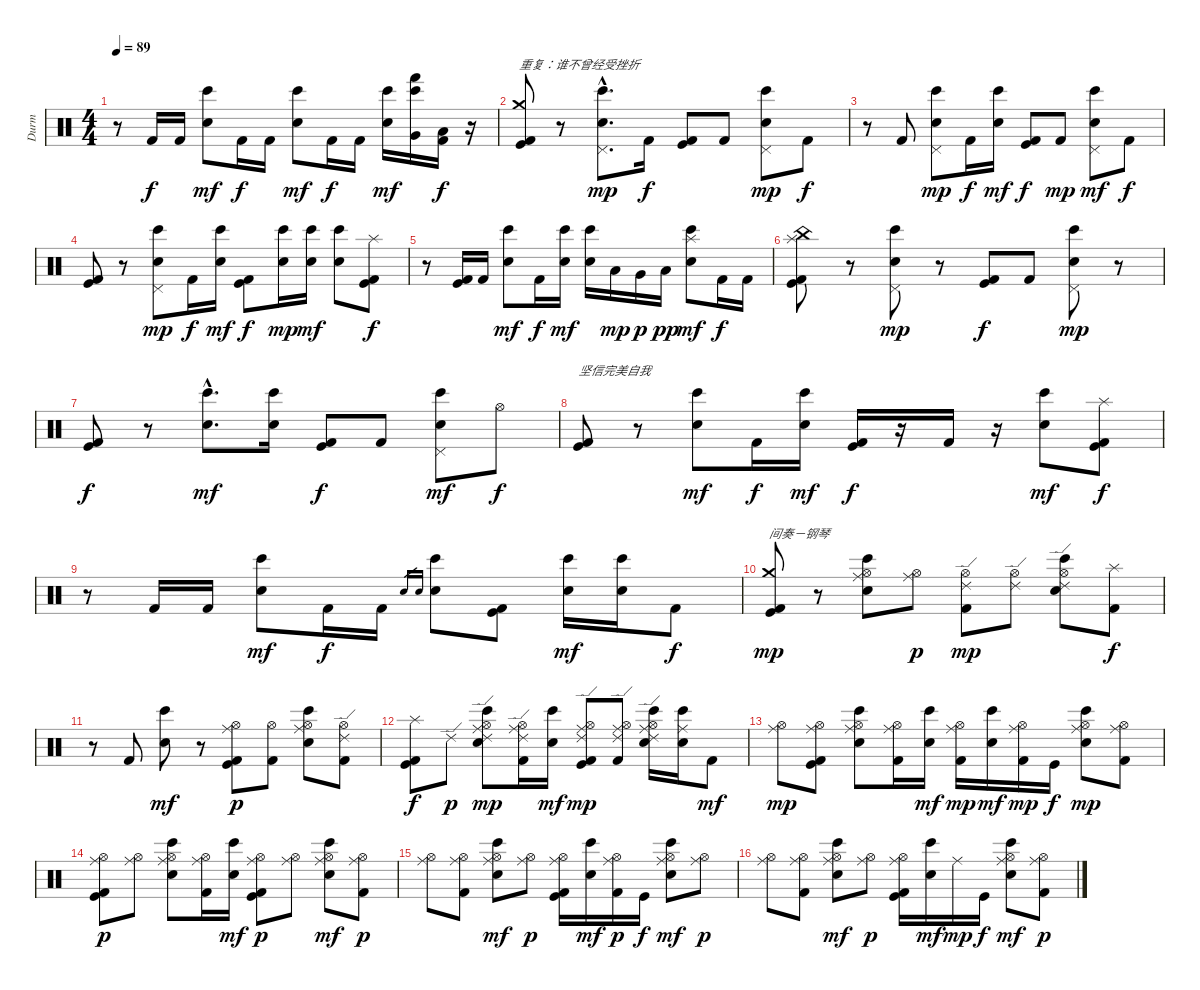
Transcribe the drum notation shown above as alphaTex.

\track ("Durm" "Durm") {instrument percussion}
\staff {score}
\articulation defaults
\ts (4 4)
\tempo 89
\clef neutral
\ks c
r.8{dy f} "Kick (hit) 2".16 "Kick (hit) 2".16 ("Bongo High (hit)" "Electric Snare (hit)").8{dy mf} "Kick (hit) 2".16{dy f} "Kick (hit) 2".16 ("Bongo High (hit)" "Electric Snare (hit)").8{dy mf} "Kick (hit) 2".16{dy f} "Kick (hit) 2".16 ("Bongo High (hit)" "Electric Snare (hit)").16{dy mf} ("Very Low Tom (hit)" "Bongo High (hit)" "Hand (hit)").16 ("Kick (hit) 2" "Low Floor Tom (hit)").16{dy f} r.16 |
("Crash medium (hit)" "Kick (hit)" "Kick (hit) 2").8{txt "重复：谁不曾经受挫折"} r.8 ("Pedal Hi-Hat (hit)"{hac} "Electric Snare (hit)"{hac} "Bongo High (hit)"{hac}).8{d dy mp} "Kick (hit) 2".16{dy f} ("Kick (hit) 2" "Kick (hit)").8 "Kick (hit) 2".8 ("Pedal Hi-Hat (hit)" "Electric Snare (hit)" "Bongo High (hit)").8{dy mp} "Kick (hit) 2".8{dy f} |
r.8 "Kick (hit) 2".8 ("Pedal Hi-Hat (hit)" "Electric Snare (hit)" "Bongo High (hit)").8{dy mp} "Kick (hit) 2".16{dy f} ("Bongo High (hit)" "Electric Snare (hit)").16{dy mf} ("Kick (hit) 2" "Kick (hit)").8{dy f} "Kick (hit) 2".8{dy mp} ("Pedal Hi-Hat (hit)" "Bongo High (hit)" "Electric Snare (hit)").8{dy mf} "Kick (hit) 2".8{dy f} |
("Kick (hit) 2" "Kick (hit)").8 r.8 ("Pedal Hi-Hat (hit)" "Electric Snare (hit)" "Bongo High (hit)").8{dy mp} "Kick (hit) 2".16{dy f} ("Bongo High (hit)" "Electric Snare (hit)").16{dy mf} ("Kick (hit) 2" "Kick (hit)").8{dy f} ("Bongo High (hit)" "Electric Snare (hit)").16{dy mp} ("Bongo High (hit)" "Electric Snare (hit)").16{dy mf} ("Bongo High (hit)" "Electric Snare (hit)").8 ("Splash (hit)" "Kick (hit) 2" "Kick (hit)").8{dy f} |
r.8 ("Kick (hit) 2" "Kick (hit)").16 "Kick (hit) 2".16 ("Bongo High (hit)" "Electric Snare (hit)").8{dy mf} "Kick (hit) 2".16{dy f} ("Electric Snare (hit)" "Bongo High (hit)").16{dy mf} ("Electric Snare (hit)" "Bongo High (hit)").16 "Low Tom (hit)".16{dy mp} "Very Low Tom (hit)".16{dy p} "Low Floor Tom (hit)".16{dy pp} ("Splash (hit)" "Bongo High (hit)" "Electric Snare (hit)").8{dy mf} "Kick (hit) 2".16{dy f} "Kick (hit) 2".16 |
("China (hit)" "Splash (hit)" "Kick (hit)" "Kick (hit) 2").8 r.8 ("Pedal Hi-Hat (hit)" "Electric Snare (hit)" "Bongo High (hit)").8{dy mp} r.8 ("Kick (hit) 2" "Kick (hit)").8{dy f} "Kick (hit) 2".8 ("Pedal Hi-Hat (hit)" "Electric Snare (hit)" "Bongo High (hit)").8{dy mp} r.8 |
("Kick (hit)" "Kick (hit) 2").8{dy f} r.8 ("Electric Snare (hit)"{hac} "Bongo High (hit)"{hac}).8{d dy mf} ("Electric Snare (hit)" "Bongo High (hit)").16 ("Kick (hit)" "Kick (hit) 2").8{dy f} "Kick (hit) 2".8 ("Pedal Hi-Hat (hit)" "Bongo High (hit)" "Electric Snare (hit)").8{dy mf} "Hi-Hat (open)".8{dy f} |
("Kick (hit) 2" "Kick (hit)").8{txt "坚信完美自我"} r.8 ("Bongo High (hit)" "Electric Snare (hit)").8{dy mf} "Kick (hit) 2".16{dy f} ("Electric Snare (hit)" "Bongo High (hit)").16{dy mf} ("Kick (hit) 2" "Kick (hit)").16{dy f} r.16 "Kick (hit) 2".16 r.16 ("Bongo High (hit)" "Electric Snare (hit)").8{dy mf} ("Splash (hit)" "Kick (hit) 2" "Kick (hit)").8{dy f} |
r.8 "Kick (hit) 2".16 "Kick (hit) 2".16 ("Bongo High (hit)" "Electric Snare (hit)").8{dy mf} "Kick (hit) 2".16{dy f} "Kick (hit) 2".16 "Snare (hit)".16{gr} "Electric Snare (hit)".16{gr} ("Bongo High (hit)" "Electric Snare (hit)").8 ("Kick (hit)" "Kick (hit) 2").8 ("Bongo High (hit)" "Electric Snare (hit)").16{dy mf} ("Bongo High (hit)" "Electric Snare (hit)").16 "Kick (hit) 2".8{dy f} |
("Kick (hit)" "Kick (hit) 2" "Crash medium (hit)").8{txt "间奏－钢琴" dy mp} r.8 ("Ride (middle)" "Hi-Hat (open)" "Electric Snare (hit)" "Bongo High (hit)").8 ("Ride (middle)" "Hi-Hat (open)").8{dy p} ("Ride (edge) 2" "Hi-Hat (open)" "Kick (hit) 2").8{dy mp} ("Ride (edge) 2" "Hi-Hat (open)").8 ("Ride (edge) 2" "Hi-Hat (open)" "Electric Snare (hit)" "Bongo High (hit)").8 ("Splash (hit)" "Kick (hit) 2").8{dy f} |
r.8 "Kick (hit) 2".8 ("Bongo High (hit)" "Electric Snare (hit)").8{dy mf} r.8 ("Hi-Hat (open)" "Ride (middle)" "Kick (hit) 2" "Kick (hit)").8{dy p} ("Hi-Hat (open)" "Kick (hit) 2").8 ("Ride (middle)" "Hi-Hat (open)" "Bongo High (hit)" "Electric Snare (hit)").8 ("Ride (edge) 2" "Hi-Hat (open)" "Kick (hit) 2").8 |
("Splash (hit)" "Kick (hit) 2" "Kick (hit)").8{dy f} "Ride (edge) 2".8{dy p} ("Ride (edge) 2" "Bongo High (hit)" "Electric Snare (hit)" "Hi-Hat (open)" "Ride (middle)").8{dy mp} ("Ride (edge) 2" "Kick (hit) 2" "Hi-Hat (open)" "Ride (middle)").16 ("Bongo High (hit)" "Electric Snare (hit)").16{dy mf} ("Kick (hit) 2" "Kick (hit)" "Ride (edge) 2" "Hi-Hat (open)" "Ride (middle)").8{dy mp} ("Kick (hit) 2" "Ride (edge) 2" "Hi-Hat (open)" "Ride (middle)").8 ("Bongo High (hit)" "Electric Snare (hit)" "Ride (edge) 2" "Hi-Hat (open)" "Ride (middle)").16 ("Bongo High (hit)" "Electric Snare (hit)" "Ride (middle)").16 "Kick (hit) 2".8{dy mf} |
("Hi-Hat (open)" "Ride (middle)").8{dy mp} ("Kick (hit) 2" "Kick (hit)" "Hi-Hat (open)" "Ride (middle)").8 ("Bongo High (hit)" "Electric Snare (hit)" "Hi-Hat (open)" "Ride (middle)").8 ("Kick (hit) 2" "Hi-Hat (open)" "Ride (middle)").16 ("Bongo High (hit)" "Electric Snare (hit)").16{dy mf} ("Kick (hit) 2" "Hi-Hat (open)" "Ride (middle)").16{dy mp} ("Bongo High (hit)" "Electric Snare (hit)").16{dy mf} ("Kick (hit) 2" "Hi-Hat (open)" "Ride (middle)").16{dy mp} "Kick (hit)".16{dy f} ("Electric Snare (hit)" "Bongo High (hit)" "Hi-Hat (open)" "Ride (middle)").8{dy mp} ("Kick (hit) 2" "Hi-Hat (open)" "Ride (middle)").8 |
("Ride (middle)" "Kick (hit) 2" "Kick (hit)" "Hi-Hat (open)").8{dy p} ("Ride (middle)" "Hi-Hat (open)").8 ("Ride (middle)" "Bongo High (hit)" "Electric Snare (hit)" "Hi-Hat (open)").8 ("Ride (middle)" "Kick (hit) 2" "Hi-Hat (open)").16 ("Electric Snare (hit)" "Bongo High (hit)").16{dy mf} ("Ride (middle)" "Hi-Hat (open)" "Kick (hit) 2" "Kick (hit)").8{dy p} ("Ride (middle)" "Hi-Hat (open)").8 ("Ride (middle)" "Hi-Hat (open)" "Bongo High (hit)" "Electric Snare (hit)").8{dy mf} ("Ride (middle)" "Hi-Hat (open)" "Kick (hit) 2").8{dy p} |
("Ride (middle)" "Hi-Hat (open)").8 ("Ride (middle)" "Hi-Hat (open)" "Kick (hit) 2").8 ("Ride (middle)" "Hi-Hat (open)" "Bongo High (hit)" "Electric Snare (hit)").8{dy mf} ("Ride (middle)" "Hi-Hat (open)").8{dy p} ("Ride (middle)" "Hi-Hat (open)" "Kick (hit) 2" "Kick (hit)").16 ("Bongo High (hit)" "Electric Snare (hit)").16{dy mf} ("Ride (middle)" "Hi-Hat (open)" "Kick (hit) 2").16{dy p} "Kick (hit)".16{dy f} ("Ride (middle)" "Hi-Hat (open)" "Electric Snare (hit)" "Bongo High (hit)").8{dy mf} ("Ride (middle)" "Hi-Hat (open)").8{dy p} |
("Ride (middle)" "Hi-Hat (open)").8 ("Ride (middle)" "Hi-Hat (open)" "Kick (hit) 2").8 ("Ride (middle)" "Hi-Hat (open)" "Bongo High (hit)" "Electric Snare (hit)").8{dy mf} ("Ride (middle)" "Hi-Hat (open)").8{dy p} ("Ride (middle)" "Hi-Hat (open)" "Kick (hit) 2" "Kick (hit)").16 ("Bongo High (hit)" "Electric Snare (hit)").16{dy mf} "Ride (middle)".16{dy mp} "Kick (hit)".16{dy f} ("Ride (middle)" "Hi-Hat (open)" "Electric Snare (hit)" "Bongo High (hit)").8{dy mf} ("Ride (middle)" "Hi-Hat (open)" "Kick (hit) 2").8{dy p}
